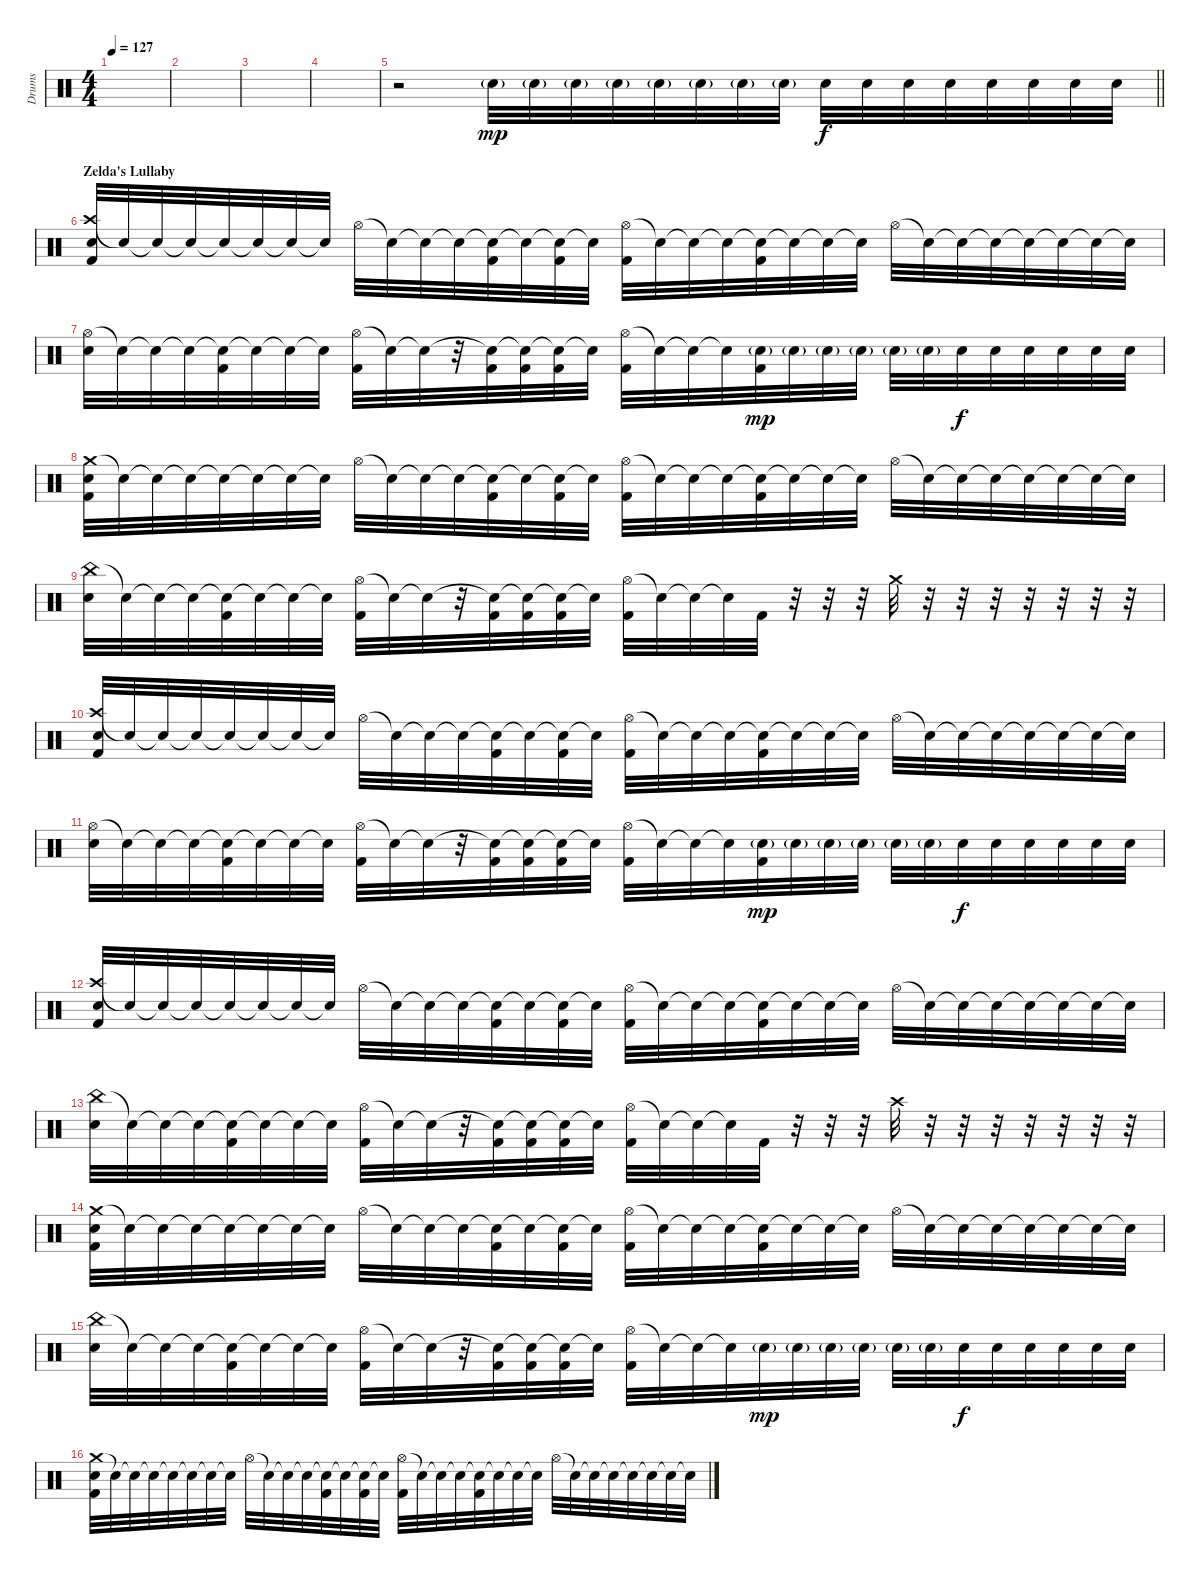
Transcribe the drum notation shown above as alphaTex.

\track ("Drums" "Drums") {instrument percussion}
\staff {score}
\articulation defaults
\ts (4 4)
\tempo 127
\clef neutral
\ks c
|
|
|
|
\barLineRight lightlight
r.2 "Snare (hit) 2"{g}.32{dy mp} "Snare (hit) 2"{g}.32 "Snare (hit) 2"{g}.32 "Snare (hit) 2"{g}.32 "Snare (hit) 2"{g}.32 "Snare (hit) 2"{g}.32 "Snare (hit) 2"{g}.32 "Snare (hit) 2"{g}.32 "Snare (hit) 2".32{dy f} "Snare (hit) 2".32 "Snare (hit) 2".32 "Snare (hit) 2".32 "Snare (hit) 2".32 "Snare (hit) 2".32 "Snare (hit) 2".32 "Snare (hit) 2".32 |
\section ("" "Zelda's Lullaby")
("Crash high (hit)" "Snare (hit) 2" "Kick (hit) 2").32 "Snare (hit)"{t}.32 "Snare (hit)"{t}.32 "Snare (hit)"{t}.32 "Snare (hit)"{t}.32 "Snare (hit)"{t}.32 "Snare (hit)"{t}.32 "Snare (hit)"{t}.32 "Hi-Hat (open)".32 "Snare (hit)"{t}.32 "Snare (hit)"{t}.32 "Snare (hit)"{t}.32 ("Snare (hit)"{t} "Kick (hit) 2").32 "Snare (hit)"{t}.32 ("Snare (hit)"{t} "Kick (hit) 2").32 "Snare (hit)"{t}.32 ("Hi-Hat (open)" "Kick (hit) 2").32 "Snare (hit)"{t}.32 "Snare (hit)"{t}.32 "Snare (hit)"{t}.32 ("Snare (hit)"{t} "Kick (hit) 2").32 "Snare (hit)"{t}.32 "Snare (hit)"{t}.32 "Snare (hit)"{t}.32 "Hi-Hat (open)".32 "Snare (hit)"{t}.32 "Snare (hit)"{t}.32 "Snare (hit)"{t}.32 "Snare (hit)"{t}.32 "Snare (hit)"{t}.32 "Snare (hit)"{t}.32 "Snare (hit)"{t}.32 |
("Hi-Hat (open)" "Snare (hit) 2").32 "Snare (hit)"{t}.32 "Snare (hit)"{t}.32 "Snare (hit)"{t}.32 ("Snare (hit)"{t} "Kick (hit) 2").32 "Snare (hit)"{t}.32 "Snare (hit)"{t}.32 "Snare (hit)"{t}.32 ("Hi-Hat (open)" "Kick (hit) 2").32 "Snare (hit)"{t}.32 "Snare (hit)"{t}.32 r.32 ("Snare (hit)"{t} "Kick (hit) 2").32 ("Snare (hit)"{t} "Kick (hit) 2").32 ("Snare (hit)"{t} "Kick (hit) 2").32 "Snare (hit)"{t}.32 ("Hi-Hat (open)" "Kick (hit) 2").32 "Snare (hit)"{t}.32 "Snare (hit)"{t}.32 "Snare (hit)"{t}.32 ("Snare (hit) 2"{g} "Kick (hit) 2").32{dy mp} "Snare (hit) 2"{g}.32 "Snare (hit) 2"{g}.32 "Snare (hit) 2"{g}.32 "Snare (hit) 2"{g}.32 "Snare (hit) 2"{g}.32 "Snare (hit) 2".32{dy f} "Snare (hit) 2".32 "Snare (hit) 2".32 "Snare (hit) 2".32 "Snare (hit) 2".32 "Snare (hit) 2".32 |
("Crash medium (hit)" "Snare (hit) 2" "Kick (hit) 2").32 "Snare (hit)"{t}.32 "Snare (hit)"{t}.32 "Snare (hit)"{t}.32 "Snare (hit)"{t}.32 "Snare (hit)"{t}.32 "Snare (hit)"{t}.32 "Snare (hit)"{t}.32 "Hi-Hat (open)".32 "Snare (hit)"{t}.32 "Snare (hit)"{t}.32 "Snare (hit)"{t}.32 ("Snare (hit)"{t} "Kick (hit) 2").32 "Snare (hit)"{t}.32 ("Snare (hit)"{t} "Kick (hit) 2").32 "Snare (hit)"{t}.32 ("Hi-Hat (open)" "Kick (hit) 2").32 "Snare (hit)"{t}.32 "Snare (hit)"{t}.32 "Snare (hit)"{t}.32 ("Snare (hit)"{t} "Kick (hit) 2").32 "Snare (hit)"{t}.32 "Snare (hit)"{t}.32 "Snare (hit)"{t}.32 "Hi-Hat (open)".32 "Snare (hit)"{t}.32 "Snare (hit)"{t}.32 "Snare (hit)"{t}.32 "Snare (hit)"{t}.32 "Snare (hit)"{t}.32 "Snare (hit)"{t}.32 "Snare (hit)"{t}.32 |
("China (hit)" "Snare (hit) 2").32 "Snare (hit)"{t}.32 "Snare (hit)"{t}.32 "Snare (hit)"{t}.32 ("Snare (hit)"{t} "Kick (hit) 2").32 "Snare (hit)"{t}.32 "Snare (hit)"{t}.32 "Snare (hit)"{t}.32 ("Hi-Hat (open)" "Kick (hit) 2").32 "Snare (hit)"{t}.32 "Snare (hit)"{t}.32 r.32 ("Snare (hit)"{t} "Kick (hit) 2").32 ("Snare (hit)"{t} "Kick (hit) 2").32 ("Snare (hit)"{t} "Kick (hit) 2").32 "Snare (hit)"{t}.32 ("Hi-Hat (open)" "Kick (hit) 2").32 "Snare (hit)"{t}.32 "Snare (hit)"{t}.32 "Snare (hit)"{t}.32 "Kick (hit) 2".32 r.32 r.32 r.32 "Crash medium (hit)".32 r.32 r.32 r.32 r.32 r.32 r.32 r.32 |
("Crash high (hit)" "Snare (hit) 2" "Kick (hit) 2").32 "Snare (hit)"{t}.32 "Snare (hit)"{t}.32 "Snare (hit)"{t}.32 "Snare (hit)"{t}.32 "Snare (hit)"{t}.32 "Snare (hit)"{t}.32 "Snare (hit)"{t}.32 "Hi-Hat (open)".32 "Snare (hit)"{t}.32 "Snare (hit)"{t}.32 "Snare (hit)"{t}.32 ("Snare (hit)"{t} "Kick (hit) 2").32 "Snare (hit)"{t}.32 ("Snare (hit)"{t} "Kick (hit) 2").32 "Snare (hit)"{t}.32 ("Hi-Hat (open)" "Kick (hit) 2").32 "Snare (hit)"{t}.32 "Snare (hit)"{t}.32 "Snare (hit)"{t}.32 ("Snare (hit)"{t} "Kick (hit) 2").32 "Snare (hit)"{t}.32 "Snare (hit)"{t}.32 "Snare (hit)"{t}.32 "Hi-Hat (open)".32 "Snare (hit)"{t}.32 "Snare (hit)"{t}.32 "Snare (hit)"{t}.32 "Snare (hit)"{t}.32 "Snare (hit)"{t}.32 "Snare (hit)"{t}.32 "Snare (hit)"{t}.32 |
("Hi-Hat (open)" "Snare (hit) 2").32 "Snare (hit)"{t}.32 "Snare (hit)"{t}.32 "Snare (hit)"{t}.32 ("Snare (hit)"{t} "Kick (hit) 2").32 "Snare (hit)"{t}.32 "Snare (hit)"{t}.32 "Snare (hit)"{t}.32 ("Hi-Hat (open)" "Kick (hit) 2").32 "Snare (hit)"{t}.32 "Snare (hit)"{t}.32 r.32 ("Snare (hit)"{t} "Kick (hit) 2").32 ("Snare (hit)"{t} "Kick (hit) 2").32 ("Snare (hit)"{t} "Kick (hit) 2").32 "Snare (hit)"{t}.32 ("Hi-Hat (open)" "Kick (hit) 2").32 "Snare (hit)"{t}.32 "Snare (hit)"{t}.32 "Snare (hit)"{t}.32 ("Snare (hit) 2"{g} "Kick (hit) 2").32{dy mp} "Snare (hit) 2"{g}.32 "Snare (hit) 2"{g}.32 "Snare (hit) 2"{g}.32 "Snare (hit) 2"{g}.32 "Snare (hit) 2"{g}.32 "Snare (hit) 2".32{dy f} "Snare (hit) 2".32 "Snare (hit) 2".32 "Snare (hit) 2".32 "Snare (hit) 2".32 "Snare (hit) 2".32 |
("Crash high (hit)" "Snare (hit) 2" "Kick (hit) 2").32 "Snare (hit)"{t}.32 "Snare (hit)"{t}.32 "Snare (hit)"{t}.32 "Snare (hit)"{t}.32 "Snare (hit)"{t}.32 "Snare (hit)"{t}.32 "Snare (hit)"{t}.32 "Hi-Hat (open)".32 "Snare (hit)"{t}.32 "Snare (hit)"{t}.32 "Snare (hit)"{t}.32 ("Snare (hit)"{t} "Kick (hit) 2").32 "Snare (hit)"{t}.32 ("Snare (hit)"{t} "Kick (hit) 2").32 "Snare (hit)"{t}.32 ("Hi-Hat (open)" "Kick (hit) 2").32 "Snare (hit)"{t}.32 "Snare (hit)"{t}.32 "Snare (hit)"{t}.32 ("Snare (hit)"{t} "Kick (hit) 2").32 "Snare (hit)"{t}.32 "Snare (hit)"{t}.32 "Snare (hit)"{t}.32 "Hi-Hat (open)".32 "Snare (hit)"{t}.32 "Snare (hit)"{t}.32 "Snare (hit)"{t}.32 "Snare (hit)"{t}.32 "Snare (hit)"{t}.32 "Snare (hit)"{t}.32 "Snare (hit)"{t}.32 |
("China (hit)" "Snare (hit) 2").32 "Snare (hit)"{t}.32 "Snare (hit)"{t}.32 "Snare (hit)"{t}.32 ("Snare (hit)"{t} "Kick (hit) 2").32 "Snare (hit)"{t}.32 "Snare (hit)"{t}.32 "Snare (hit)"{t}.32 ("Hi-Hat (open)" "Kick (hit) 2").32 "Snare (hit)"{t}.32 "Snare (hit)"{t}.32 r.32 ("Snare (hit)"{t} "Kick (hit) 2").32 ("Snare (hit)"{t} "Kick (hit) 2").32 ("Snare (hit)"{t} "Kick (hit) 2").32 "Snare (hit)"{t}.32 ("Hi-Hat (open)" "Kick (hit) 2").32 "Snare (hit)"{t}.32 "Snare (hit)"{t}.32 "Snare (hit)"{t}.32 "Kick (hit) 2".32 r.32 r.32 r.32 "Crash high (hit)".32 r.32 r.32 r.32 r.32 r.32 r.32 r.32 |
("Crash medium (hit)" "Snare (hit) 2" "Kick (hit) 2").32 "Snare (hit)"{t}.32 "Snare (hit)"{t}.32 "Snare (hit)"{t}.32 "Snare (hit)"{t}.32 "Snare (hit)"{t}.32 "Snare (hit)"{t}.32 "Snare (hit)"{t}.32 "Hi-Hat (open)".32 "Snare (hit)"{t}.32 "Snare (hit)"{t}.32 "Snare (hit)"{t}.32 ("Snare (hit)"{t} "Kick (hit) 2").32 "Snare (hit)"{t}.32 ("Snare (hit)"{t} "Kick (hit) 2").32 "Snare (hit)"{t}.32 ("Hi-Hat (open)" "Kick (hit) 2").32 "Snare (hit)"{t}.32 "Snare (hit)"{t}.32 "Snare (hit)"{t}.32 ("Snare (hit)"{t} "Kick (hit) 2").32 "Snare (hit)"{t}.32 "Snare (hit)"{t}.32 "Snare (hit)"{t}.32 "Hi-Hat (open)".32 "Snare (hit)"{t}.32 "Snare (hit)"{t}.32 "Snare (hit)"{t}.32 "Snare (hit)"{t}.32 "Snare (hit)"{t}.32 "Snare (hit)"{t}.32 "Snare (hit)"{t}.32 |
("China (hit)" "Snare (hit) 2").32 "Snare (hit)"{t}.32 "Snare (hit)"{t}.32 "Snare (hit)"{t}.32 ("Snare (hit)"{t} "Kick (hit) 2").32 "Snare (hit)"{t}.32 "Snare (hit)"{t}.32 "Snare (hit)"{t}.32 ("Hi-Hat (open)" "Kick (hit) 2").32 "Snare (hit)"{t}.32 "Snare (hit)"{t}.32 r.32 ("Snare (hit)"{t} "Kick (hit) 2").32 ("Snare (hit)"{t} "Kick (hit) 2").32 ("Snare (hit)"{t} "Kick (hit) 2").32 "Snare (hit)"{t}.32 ("Hi-Hat (open)" "Kick (hit) 2").32 "Snare (hit)"{t}.32 "Snare (hit)"{t}.32 "Snare (hit)"{t}.32 "Snare (hit) 2"{g}.32{dy mp} "Snare (hit) 2"{g}.32 "Snare (hit) 2"{g}.32 "Snare (hit) 2"{g}.32 "Snare (hit) 2"{g}.32 "Snare (hit) 2"{g}.32 "Snare (hit) 2".32{dy f} "Snare (hit) 2".32 "Snare (hit) 2".32 "Snare (hit) 2".32 "Snare (hit) 2".32 "Snare (hit) 2".32 |
("Crash medium (hit)" "Snare (hit) 2" "Kick (hit) 2").32 "Snare (hit)"{t}.32 "Snare (hit)"{t}.32 "Snare (hit)"{t}.32 "Snare (hit)"{t}.32 "Snare (hit)"{t}.32 "Snare (hit)"{t}.32 "Snare (hit)"{t}.32 "Hi-Hat (open)".32 "Snare (hit)"{t}.32 "Snare (hit)"{t}.32 "Snare (hit)"{t}.32 ("Snare (hit)"{t} "Kick (hit) 2").32 "Snare (hit)"{t}.32 ("Snare (hit)"{t} "Kick (hit) 2").32 "Snare (hit)"{t}.32 ("Hi-Hat (open)" "Kick (hit) 2").32 "Snare (hit)"{t}.32 "Snare (hit)"{t}.32 "Snare (hit)"{t}.32 ("Snare (hit)"{t} "Kick (hit) 2").32 "Snare (hit)"{t}.32 "Snare (hit)"{t}.32 "Snare (hit)"{t}.32 "Hi-Hat (open)".32 "Snare (hit)"{t}.32 "Snare (hit)"{t}.32 "Snare (hit)"{t}.32 "Snare (hit)"{t}.32 "Snare (hit)"{t}.32 "Snare (hit)"{t}.32 "Snare (hit)"{t}.32
